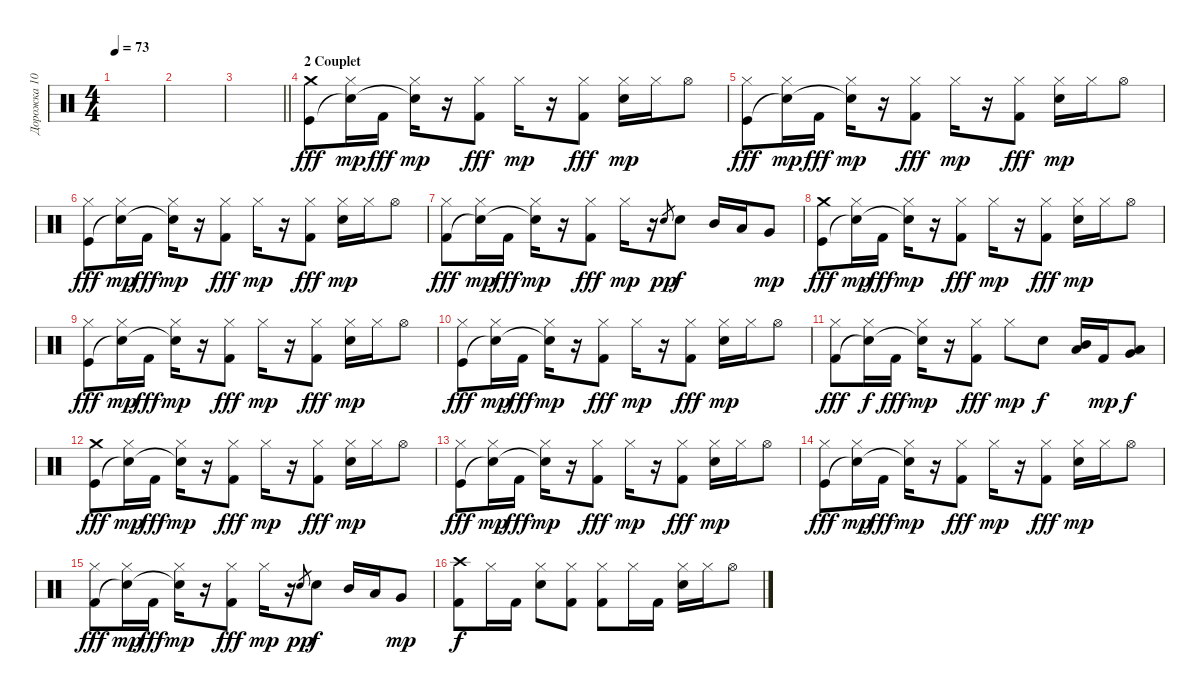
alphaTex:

\track ("Дорожка 10" "Дорожка 10") {instrument percussion}
\staff {score}
\articulation defaults
\ts (4 4)
\tempo 73
\clef neutral
\ks c
|
|
\barLineRight lightlight
|
\section ("" "2 Couplet")
("Crash medium (hit)" "Kick (hit)").8{dy fff} ("Hi-Hat (closed)" "Snare (hit)"{t}).16{dy mp} "Kick (hit) 2".16{dy fff} ("Hi-Hat (closed)" "Snare (hit)"{t}).16{dy mp} r.16 ("Hi-Hat (closed)" "Kick (hit) 2").8{dy fff} "Hi-Hat (closed)".16{dy mp} r.16 ("Hi-Hat (closed)" "Kick (hit) 2").8{dy fff} ("Hi-Hat (closed)" "Snare (hit) 2").16{dy mp} "Hi-Hat (closed)".16 "Hi-Hat (open)".8 |
("Hi-Hat (closed)" "Kick (hit)").8{dy fff} ("Hi-Hat (closed)" "Snare (hit)"{t}).16{dy mp} "Kick (hit) 2".16{dy fff} ("Hi-Hat (closed)" "Snare (hit)"{t}).16{dy mp} r.16 ("Hi-Hat (closed)" "Kick (hit) 2").8{dy fff} "Hi-Hat (closed)".16{dy mp} r.16 ("Hi-Hat (closed)" "Kick (hit) 2").8{dy fff} ("Hi-Hat (closed)" "Snare (hit) 2").16{dy mp} "Hi-Hat (closed)".16 "Hi-Hat (open)".8 |
("Hi-Hat (closed)" "Kick (hit)").8{dy fff} ("Hi-Hat (closed)" "Snare (hit)"{t}).16{dy mp} "Kick (hit) 2".16{dy fff} ("Hi-Hat (closed)" "Snare (hit)"{t}).16{dy mp} r.16 ("Hi-Hat (closed)" "Kick (hit) 2").8{dy fff} "Hi-Hat (closed)".16{dy mp} r.16 ("Hi-Hat (closed)" "Kick (hit) 2").8{dy fff} ("Hi-Hat (closed)" "Snare (hit) 2").16{dy mp} "Hi-Hat (closed)".16 "Hi-Hat (open)".8 |
("Hi-Hat (closed)" "Kick (hit) 2").8{dy fff} ("Hi-Hat (closed)" "Snare (hit)"{t}).16{dy mp} "Kick (hit) 2".16{dy fff} ("Hi-Hat (closed)" "Snare (hit)"{t}).16{dy mp} r.16 ("Hi-Hat (closed)" "Kick (hit) 2").8{dy fff} "Hi-Hat (closed)".16{dy mp} r.16 "Snare (hit) 2".8{gr dy pp} "Snare (hit) 2".8{dy f} "Mid Tom (hit)".16 "Low Tom (hit)".16 "Very Low Tom (hit)".8{dy mp} |
("Crash medium (hit)" "Kick (hit)").8{dy fff} ("Hi-Hat (closed)" "Snare (hit)"{t}).16{dy mp} "Kick (hit) 2".16{dy fff} ("Hi-Hat (closed)" "Snare (hit)"{t}).16{dy mp} r.16 ("Hi-Hat (closed)" "Kick (hit) 2").8{dy fff} "Hi-Hat (closed)".16{dy mp} r.16 ("Hi-Hat (closed)" "Kick (hit) 2").8{dy fff} ("Hi-Hat (closed)" "Snare (hit) 2").16{dy mp} "Hi-Hat (closed)".16 "Hi-Hat (open)".8 |
("Hi-Hat (closed)" "Kick (hit)").8{dy fff} ("Hi-Hat (closed)" "Snare (hit)"{t}).16{dy mp} "Kick (hit) 2".16{dy fff} ("Hi-Hat (closed)" "Snare (hit)"{t}).16{dy mp} r.16 ("Hi-Hat (closed)" "Kick (hit) 2").8{dy fff} "Hi-Hat (closed)".16{dy mp} r.16 ("Hi-Hat (closed)" "Kick (hit) 2").8{dy fff} ("Hi-Hat (closed)" "Snare (hit) 2").16{dy mp} "Hi-Hat (closed)".16 "Hi-Hat (open)".8 |
("Hi-Hat (closed)" "Kick (hit)").8{dy fff} ("Hi-Hat (closed)" "Snare (hit)"{t}).16{dy mp} "Kick (hit) 2".16{dy fff} ("Hi-Hat (closed)" "Snare (hit)"{t}).16{dy mp} r.16 ("Hi-Hat (closed)" "Kick (hit) 2").8{dy fff} "Hi-Hat (closed)".16{dy mp} r.16 ("Hi-Hat (closed)" "Kick (hit) 2").8{dy fff} ("Hi-Hat (closed)" "Snare (hit) 2").16{dy mp} "Hi-Hat (closed)".16 "Hi-Hat (open)".8 |
("Hi-Hat (closed)" "Kick (hit) 2").8{dy fff} ("Hi-Hat (closed)" "Snare (hit)"{t}).16{dy f} "Kick (hit) 2".16{dy fff} ("Hi-Hat (closed)" "Snare (hit)"{t}).16{dy mp} r.16 ("Hi-Hat (closed)" "Kick (hit) 2").8{dy fff} "Hi-Hat (closed)".8{dy mp} "Snare (hit) 2".8{dy f} ("Low Tom (hit)" "Mid Tom (hit)").16 "Kick (hit) 2".16{dy mp} ("Very Low Tom (hit)" "Low Floor Tom (hit)").8{dy f} |
("Crash medium (hit)" "Kick (hit)").8{dy fff} ("Hi-Hat (closed)" "Snare (hit)"{t}).16{dy mp} "Kick (hit) 2".16{dy fff} ("Hi-Hat (closed)" "Snare (hit)"{t}).16{dy mp} r.16 ("Hi-Hat (closed)" "Kick (hit) 2").8{dy fff} "Hi-Hat (closed)".16{dy mp} r.16 ("Hi-Hat (closed)" "Kick (hit) 2").8{dy fff} ("Hi-Hat (closed)" "Snare (hit) 2").16{dy mp} "Hi-Hat (closed)".16 "Hi-Hat (open)".8 |
("Hi-Hat (closed)" "Kick (hit)").8{dy fff} ("Hi-Hat (closed)" "Snare (hit)"{t}).16{dy mp} "Kick (hit) 2".16{dy fff} ("Hi-Hat (closed)" "Snare (hit)"{t}).16{dy mp} r.16 ("Hi-Hat (closed)" "Kick (hit) 2").8{dy fff} "Hi-Hat (closed)".16{dy mp} r.16 ("Hi-Hat (closed)" "Kick (hit) 2").8{dy fff} ("Hi-Hat (closed)" "Snare (hit) 2").16{dy mp} "Hi-Hat (closed)".16 "Hi-Hat (open)".8 |
("Hi-Hat (closed)" "Kick (hit)").8{dy fff} ("Hi-Hat (closed)" "Snare (hit)"{t}).16{dy mp} "Kick (hit) 2".16{dy fff} ("Hi-Hat (closed)" "Snare (hit)"{t}).16{dy mp} r.16 ("Hi-Hat (closed)" "Kick (hit) 2").8{dy fff} "Hi-Hat (closed)".16{dy mp} r.16 ("Hi-Hat (closed)" "Kick (hit) 2").8{dy fff} ("Hi-Hat (closed)" "Snare (hit) 2").16{dy mp} "Hi-Hat (closed)".16 "Hi-Hat (open)".8 |
("Hi-Hat (closed)" "Kick (hit) 2").8{dy fff} ("Hi-Hat (closed)" "Snare (hit)"{t}).16{dy mp} "Kick (hit) 2".16{dy fff} ("Hi-Hat (closed)" "Snare (hit)"{t}).16{dy mp} r.16 ("Hi-Hat (closed)" "Kick (hit) 2").8{dy fff} "Hi-Hat (closed)".16{dy mp} r.16 "Snare (hit) 2".8{gr dy pp} "Snare (hit) 2".8{dy f} "Mid Tom (hit)".16 "Low Tom (hit)".16 "Very Low Tom (hit)".8{dy mp} |
("Crash high (hit)" "Kick (hit) 2").8{dy f} "Hi-Hat (closed)".16 "Kick (hit) 2".16 ("Hi-Hat (closed)" "Snare (hit) 2").8 ("Hi-Hat (closed)" "Kick (hit) 2").8 ("Hi-Hat (closed)" "Kick (hit) 2").8 "Hi-Hat (closed)".16 "Kick (hit) 2".16 ("Hi-Hat (closed)" "Snare (hit) 2").16 "Hi-Hat (closed)".16 "Hi-Hat (open)".8
